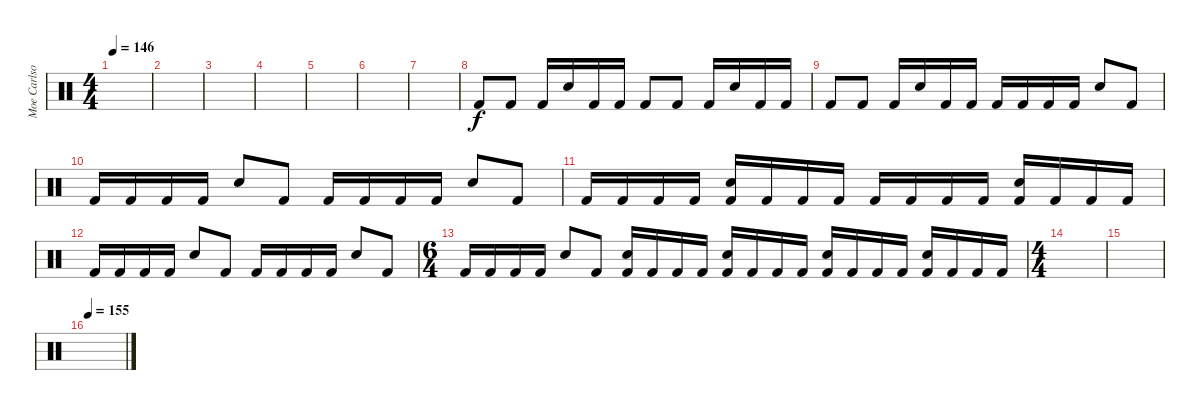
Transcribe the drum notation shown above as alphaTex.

\track ("Moe Carlson" "Moe Carlso") {solo instrument percussion}
\staff {score}
\articulation defaults
\ts (4 4)
\tempo 146
\clef neutral
\ks c
|
|
|
|
|
|
|
"Kick (hit) 2".8 "Kick (hit) 2".8 "Kick (hit) 2".16 "Electric Snare (hit)".16 "Kick (hit) 2".16 "Kick (hit) 2".16 "Kick (hit) 2".8 "Kick (hit) 2".8 "Kick (hit) 2".16 "Electric Snare (hit)".16 "Kick (hit) 2".16 "Kick (hit) 2".16 |
"Kick (hit) 2".8 "Kick (hit) 2".8 "Kick (hit) 2".16 "Electric Snare (hit)".16 "Kick (hit) 2".16 "Kick (hit) 2".16 "Kick (hit) 2".16 "Kick (hit) 2".16 "Kick (hit) 2".16 "Kick (hit) 2".16 "Electric Snare (hit)".8 "Kick (hit) 2".8 |
"Kick (hit) 2".16 "Kick (hit) 2".16 "Kick (hit) 2".16 "Kick (hit) 2".16 "Electric Snare (hit)".8 "Kick (hit) 2".8 "Kick (hit) 2".16 "Kick (hit) 2".16 "Kick (hit) 2".16 "Kick (hit) 2".16 "Electric Snare (hit)".8 "Kick (hit) 2".8 |
"Kick (hit) 2".16 "Kick (hit) 2".16 "Kick (hit) 2".16 "Kick (hit) 2".16 ("Electric Snare (hit)" "Kick (hit) 2").16 "Kick (hit) 2".16 "Kick (hit) 2".16 "Kick (hit) 2".16 "Kick (hit) 2".16 "Kick (hit) 2".16 "Kick (hit) 2".16 "Kick (hit) 2".16 ("Electric Snare (hit)" "Kick (hit) 2").16 "Kick (hit) 2".16 "Kick (hit) 2".16 "Kick (hit) 2".16 |
"Kick (hit) 2".16 "Kick (hit) 2".16 "Kick (hit) 2".16 "Kick (hit) 2".16 "Electric Snare (hit)".8 "Kick (hit) 2".8 "Kick (hit) 2".16 "Kick (hit) 2".16 "Kick (hit) 2".16 "Kick (hit) 2".16 "Electric Snare (hit)".8 "Kick (hit) 2".8 |
\ts (6 4)
"Kick (hit) 2".16 "Kick (hit) 2".16 "Kick (hit) 2".16 "Kick (hit) 2".16 "Electric Snare (hit)".8 "Kick (hit) 2".8 ("Electric Snare (hit)" "Kick (hit) 2").16 "Kick (hit) 2".16 "Kick (hit) 2".16 "Kick (hit) 2".16 ("Electric Snare (hit)" "Kick (hit) 2").16 "Kick (hit) 2".16 "Kick (hit) 2".16 "Kick (hit) 2".16 ("Electric Snare (hit)" "Kick (hit) 2").16 "Kick (hit) 2".16 "Kick (hit) 2".16 "Kick (hit) 2".16 ("Electric Snare (hit)" "Kick (hit) 2").16 "Kick (hit) 2".16 "Kick (hit) 2".16 "Kick (hit) 2".16 |
\ts (4 4)
|
|
\tempo 155
